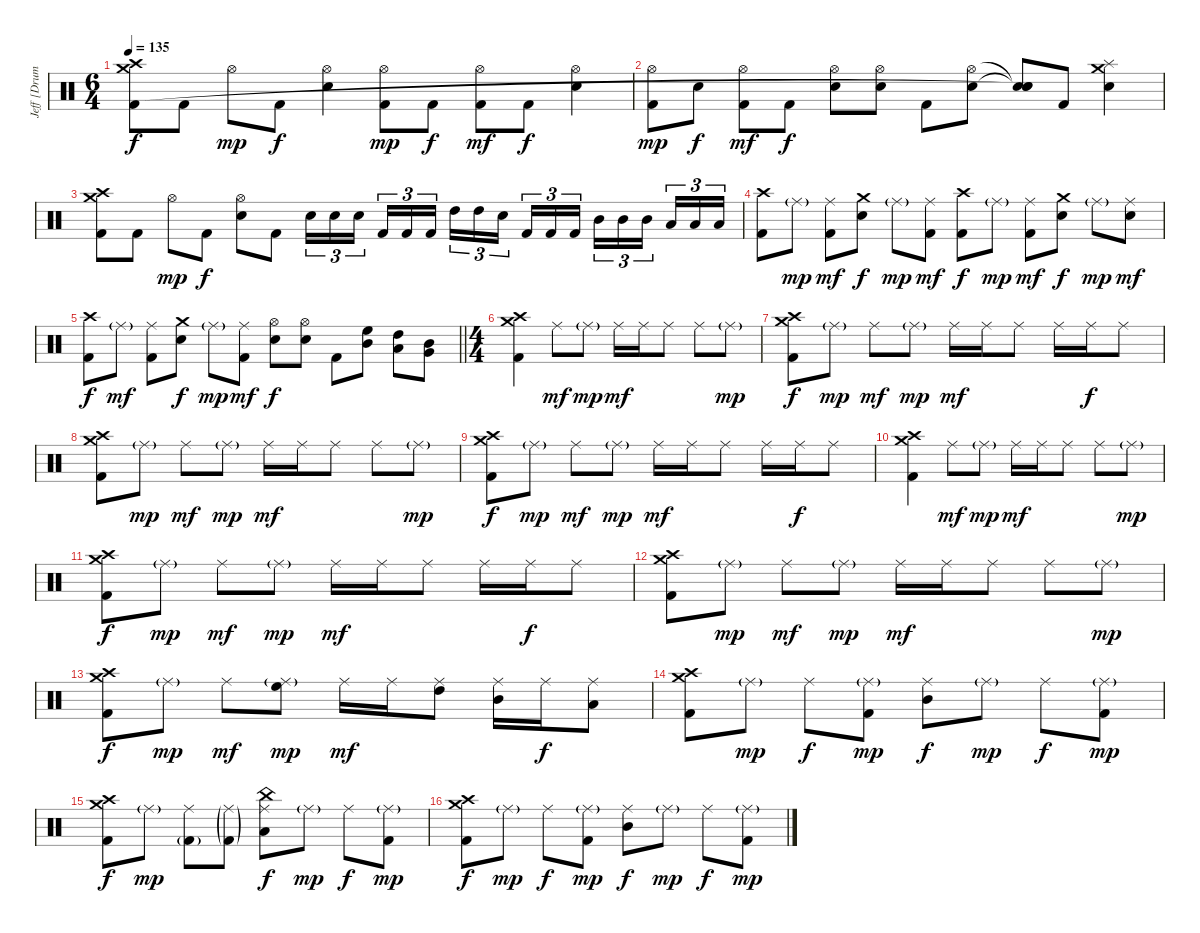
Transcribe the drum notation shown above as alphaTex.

\track ("Jeff [Drums]" "Jeff [Drum") {instrument percussion}
\staff {score}
\articulation defaults
\ts (6 4)
\tempo 135
\clef neutral
\ks c
("Crash high (hit)" "Crash medium (hit)" "Kick (hit) 2").8{dy f} "Kick (hit) 2".8 "Hi-Hat (open)".8{dy mp} "Kick (hit) 2".8{dy f} ("Hi-Hat (open)" "Electric Snare (hit)").4 ("Hi-Hat (open)" "Kick (hit) 2").8{dy mp} "Kick (hit) 2".8{dy f} ("Hi-Hat (open)" "Kick (hit) 2").8{dy mf} "Kick (hit) 2".8{dy f} ("Hi-Hat (open)" "Electric Snare (hit)").4 |
("Hi-Hat (open)" "Kick (hit) 2").8{dy mp} "Electric Snare (hit)".8{dy f} ("Hi-Hat (open)" "Kick (hit) 2").8{dy mf} "Kick (hit) 2".8{dy f} ("Hi-Hat (open)" "Electric Snare (hit)").8 ("Hi-Hat (open)" "Electric Snare (hit)").8 "Kick (hit) 2".8 ("Hi-Hat (open)" "Electric Snare (hit)").8 ("Snare (hit)"{t} "Snare (hit)"{t} "Snare (hit)"{t}).8 "Kick (hit) 2".8 ("Crash medium (hit)" "Splash (hit)" "Electric Snare (hit)").4 |
("Crash high (hit)" "Crash medium (hit)" "Kick (hit) 2").8 "Kick (hit) 2".8 "Hi-Hat (open)".8{dy mp} "Kick (hit) 2".8{dy f} ("Hi-Hat (open)" "Electric Snare (hit)").8 "Kick (hit) 2".8 "Electric Snare (hit)".16{tu (3 2)} "Electric Snare (hit)".16{tu (3 2)} "Electric Snare (hit)".16{tu (3 2)} "Kick (hit) 2".16{tu (3 2)} "Kick (hit) 2".16{tu (3 2)} "Kick (hit) 2".16{tu (3 2)} "High Tom (hit)".16{tu (3 2)} "High Tom (hit)".16{tu (3 2)} "Electric Snare (hit)".16{tu (3 2)} "Kick (hit) 2".16{tu (3 2)} "Kick (hit) 2".16{tu (3 2)} "Kick (hit) 2".16{tu (3 2)} "Mid Tom (hit)".16{tu (3 2)} "Mid Tom (hit)".16{tu (3 2)} "Mid Tom (hit)".16{tu (3 2)} "Low Tom (hit)".16{tu (3 2)} "Low Tom (hit)".16{tu (3 2)} "Low Tom (hit)".16{tu (3 2)} |
("Crash high (hit)" "Kick (hit) 2").8 "Ride (middle)"{g}.8{dy mp} ("Ride (middle)" "Kick (hit) 2").8{dy mf} ("Crash medium (hit)" "Electric Snare (hit)").8{dy f} "Ride (middle)"{g}.8{dy mp} ("Ride (middle)" "Kick (hit) 2").8{dy mf} ("Crash high (hit)" "Kick (hit) 2").8{dy f} "Ride (middle)"{g}.8{dy mp} ("Ride (middle)" "Kick (hit) 2").8{dy mf} ("Crash medium (hit)" "Electric Snare (hit)").8{dy f} "Ride (middle)"{g}.8{dy mp} ("Ride (middle)" "Electric Snare (hit)").8{dy mf} |
\barLineRight lightlight
("Crash high (hit)" "Kick (hit) 2").8{dy f} "Ride (middle)"{g}.8{dy mf} ("Ride (middle)" "Kick (hit) 2").8 ("Crash medium (hit)" "Electric Snare (hit)").8{dy f} "Ride (middle)"{g}.8{dy mp} ("Ride (middle)" "Kick (hit) 2").8{dy mf} ("Hi-Hat (open)" "Electric Snare (hit)").8{dy f} ("Hi-Hat (open)" "Electric Snare (hit)").8 "Kick (hit) 2".8 ("High Floor Tom (hit)" "Mid Tom (hit)").8 ("High Tom (hit)" "Low Tom (hit)").8 ("Mid Tom (hit)" "Very Low Tom (hit)").8 |
\ts (4 4)
("Crash high (hit)" "Crash medium (hit)" "Kick (hit) 2").4 "Ride (middle)".8{dy mf} "Ride (middle)"{g}.8{dy mp} "Ride (middle)".16{dy mf} "Ride (middle)".16 "Ride (middle)".8 "Ride (middle)".8 "Ride (middle)"{g}.8{dy mp} |
("Crash high (hit)" "Crash medium (hit)" "Kick (hit) 2").8{dy f} "Ride (middle)"{g}.8{dy mp} "Ride (middle)".8{dy mf} "Ride (middle)"{g}.8{dy mp} "Ride (middle)".16{dy mf} "Ride (middle)".16 "Ride (middle)".8 "Ride (middle)".16 "Ride (middle)".16{dy f} "Ride (middle)".8 |
("Crash high (hit)" "Crash medium (hit)" "Kick (hit) 2").8 "Ride (middle)"{g}.8{dy mp} "Ride (middle)".8{dy mf} "Ride (middle)"{g}.8{dy mp} "Ride (middle)".16{dy mf} "Ride (middle)".16 "Ride (middle)".8 "Ride (middle)".8 "Ride (middle)"{g}.8{dy mp} |
("Crash high (hit)" "Crash medium (hit)" "Kick (hit) 2").8{dy f} "Ride (middle)"{g}.8{dy mp} "Ride (middle)".8{dy mf} "Ride (middle)"{g}.8{dy mp} "Ride (middle)".16{dy mf} "Ride (middle)".16 "Ride (middle)".8 "Ride (middle)".16 "Ride (middle)".16{dy f} "Ride (middle)".8 |
("Crash high (hit)" "Crash medium (hit)" "Kick (hit) 2").4 "Ride (middle)".8{dy mf} "Ride (middle)"{g}.8{dy mp} "Ride (middle)".16{dy mf} "Ride (middle)".16 "Ride (middle)".8 "Ride (middle)".8 "Ride (middle)"{g}.8{dy mp} |
("Crash high (hit)" "Crash medium (hit)" "Kick (hit) 2").8{dy f} "Ride (middle)"{g}.8{dy mp} "Ride (middle)".8{dy mf} "Ride (middle)"{g}.8{dy mp} "Ride (middle)".16{dy mf} "Ride (middle)".16 "Ride (middle)".8 "Ride (middle)".16 "Ride (middle)".16{dy f} "Ride (middle)".8 |
("Crash high (hit)" "Crash medium (hit)" "Kick (hit) 2").8 "Ride (middle)"{g}.8{dy mp} "Ride (middle)".8{dy mf} "Ride (middle)"{g}.8{dy mp} "Ride (middle)".16{dy mf} "Ride (middle)".16 "Ride (middle)".8 "Ride (middle)".8 "Ride (middle)"{g}.8{dy mp} |
("Crash high (hit)" "Crash medium (hit)" "Kick (hit) 2").8{dy f} "Ride (middle)"{g}.8{dy mp} "Ride (middle)".8{dy mf} ("Ride (middle)"{g} "High Floor Tom (hit)").8{dy mp} "Ride (middle)".16{dy mf} "Ride (middle)".16 ("Ride (middle)" "High Tom (hit)").8 ("Ride (middle)" "Mid Tom (hit)").16 "Ride (middle)".16{dy f} ("Ride (middle)" "Low Tom (hit)").8 |
("Crash high (hit)" "Crash medium (hit)" "Kick (hit) 2").8 "Ride (middle)"{g}.8{dy mp} "Ride (middle)".8{dy f} ("Ride (middle)"{g} "Kick (hit) 2").8{dy mp} ("Ride (middle)" "Mid Tom (hit)").8{dy f} "Ride (middle)"{g}.8{dy mp} "Ride (middle)".8{dy f} ("Ride (middle)"{g} "Kick (hit) 2").8{dy mp} |
("Crash high (hit)" "Crash medium (hit)" "Kick (hit) 2").8{dy f} "Ride (middle)"{g}.8{dy mp} ("Ride (middle)" "Kick (hit) 2"{g}).8 ("Ride (middle)"{g} "Kick (hit) 2"{g}).8 ("China (hit)" "Ride (middle)" "Low Tom (hit)").8{dy f} "Ride (middle)"{g}.8{dy mp} "Ride (middle)".8{dy f} ("Ride (middle)"{g} "Kick (hit) 2").8{dy mp} |
("Crash high (hit)" "Crash medium (hit)" "Kick (hit) 2").8{dy f} "Ride (middle)"{g}.8{dy mp} "Ride (middle)".8{dy f} ("Ride (middle)"{g} "Kick (hit) 2").8{dy mp} ("Ride (middle)" "Mid Tom (hit)").8{dy f} "Ride (middle)"{g}.8{dy mp} "Ride (middle)".8{dy f} ("Ride (middle)"{g} "Kick (hit) 2").8{dy mp}
